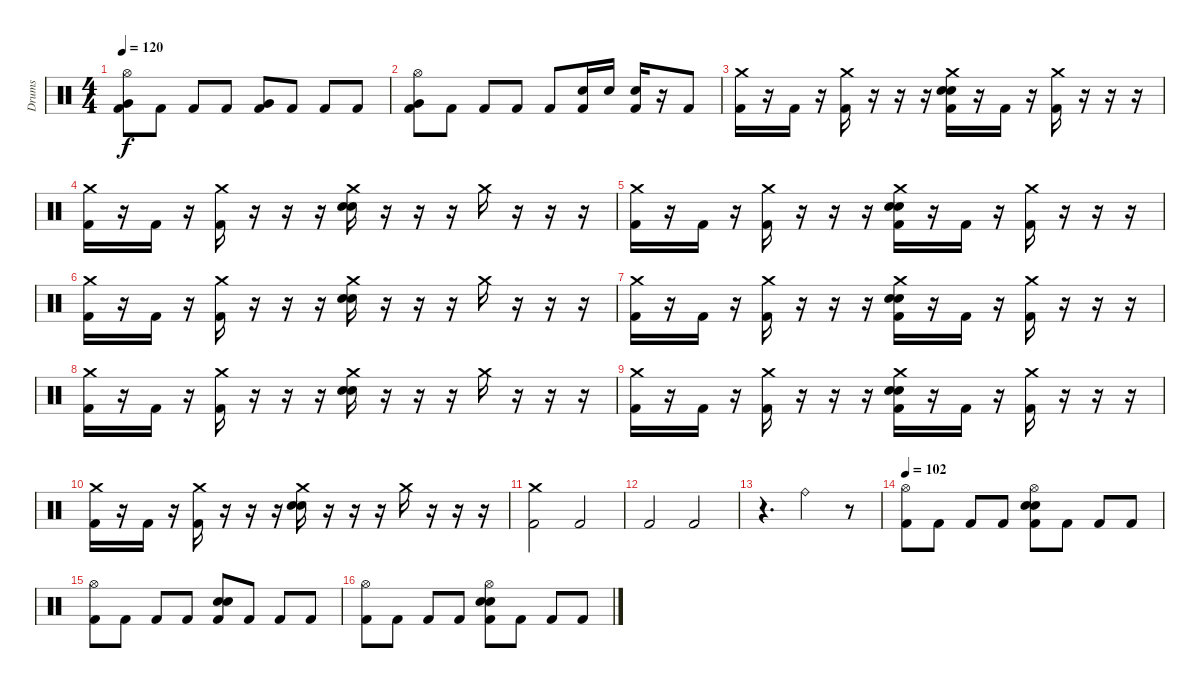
\track ("Drums" "Drums") {instrument percussion}
\staff {score}
\articulation defaults
\ts (4 4)
\tempo 120
\clef neutral
\ks c
("Hi-Hat (open)" "Very Low Tom (hit)" "Kick (hit) 2").8{dy f} "Kick (hit) 2".8 "Kick (hit) 2".8 "Kick (hit) 2".8 ("Very Low Tom (hit)" "Kick (hit) 2").8 "Kick (hit) 2".8 "Kick (hit) 2".8 "Kick (hit) 2".8 |
("Hi-Hat (open)" "Very Low Tom (hit)" "Kick (hit) 2").8 "Kick (hit) 2".8 "Kick (hit) 2".8 "Kick (hit) 2".8 "Kick (hit) 2".8 ("Electric Snare (hit)" "Kick (hit) 2").16 "Electric Snare (hit)".16 ("Electric Snare (hit)" "Kick (hit) 2").16 r.16 "Kick (hit) 2".8 |
("Crash medium (hit)" "Kick (hit) 2").16 r.16 "Kick (hit) 2".16 r.16 ("Crash medium (hit)" "Kick (hit) 2").16 r.16 r.16 r.16 ("Crash medium (hit)" "Electric Snare (hit)" "Electric Snare (hit)" "Kick (hit) 2").16 r.16 "Kick (hit) 2".16 r.16 ("Crash medium (hit)" "Kick (hit) 2").16 r.16 r.16 r.16 |
("Crash medium (hit)" "Kick (hit) 2").16 r.16 "Kick (hit) 2".16 r.16 ("Crash medium (hit)" "Kick (hit) 2").16 r.16 r.16 r.16 ("Crash medium (hit)" "Electric Snare (hit)" "Electric Snare (hit)").16 r.16 r.16 r.16 "Crash medium (hit)".16 r.16 r.16 r.16 |
("Crash medium (hit)" "Kick (hit) 2").16 r.16 "Kick (hit) 2".16 r.16 ("Crash medium (hit)" "Kick (hit) 2").16 r.16 r.16 r.16 ("Crash medium (hit)" "Electric Snare (hit)" "Electric Snare (hit)" "Kick (hit) 2").16 r.16 "Kick (hit) 2".16 r.16 ("Crash medium (hit)" "Kick (hit) 2").16 r.16 r.16 r.16 |
("Crash medium (hit)" "Kick (hit) 2").16 r.16 "Kick (hit) 2".16 r.16 ("Crash medium (hit)" "Kick (hit) 2").16 r.16 r.16 r.16 ("Crash medium (hit)" "Electric Snare (hit)" "Electric Snare (hit)").16 r.16 r.16 r.16 "Crash medium (hit)".16 r.16 r.16 r.16 |
("Crash medium (hit)" "Kick (hit) 2").16 r.16 "Kick (hit) 2".16 r.16 ("Crash medium (hit)" "Kick (hit) 2").16 r.16 r.16 r.16 ("Crash medium (hit)" "Electric Snare (hit)" "Electric Snare (hit)" "Kick (hit) 2").16 r.16 "Kick (hit) 2".16 r.16 ("Crash medium (hit)" "Kick (hit) 2").16 r.16 r.16 r.16 |
("Crash medium (hit)" "Kick (hit) 2").16 r.16 "Kick (hit) 2".16 r.16 ("Crash medium (hit)" "Kick (hit) 2").16 r.16 r.16 r.16 ("Crash medium (hit)" "Electric Snare (hit)" "Electric Snare (hit)").16 r.16 r.16 r.16 "Crash medium (hit)".16 r.16 r.16 r.16 |
("Crash medium (hit)" "Kick (hit) 2").16 r.16 "Kick (hit) 2".16 r.16 ("Crash medium (hit)" "Kick (hit) 2").16 r.16 r.16 r.16 ("Crash medium (hit)" "Electric Snare (hit)" "Electric Snare (hit)" "Kick (hit) 2").16 r.16 "Kick (hit) 2".16 r.16 ("Crash medium (hit)" "Kick (hit) 2").16 r.16 r.16 r.16 |
("Crash medium (hit)" "Kick (hit) 2").16 r.16 "Kick (hit) 2".16 r.16 ("Crash medium (hit)" "Kick (hit) 2").16 r.16 r.16 r.16 ("Crash medium (hit)" "Electric Snare (hit)" "Electric Snare (hit)").16 r.16 r.16 r.16 "Crash medium (hit)".16 r.16 r.16 r.16 |
("Crash medium (hit)" "Kick (hit) 2").2 "Kick (hit) 2".2 |
"Kick (hit) 2".2 "Kick (hit) 2".2 |
r.4{d} "Ride (bell)".2 r.8 |
\tempo 102
("Hi-Hat (open)" "Kick (hit) 2").8 "Kick (hit) 2".8 "Kick (hit) 2".8 "Kick (hit) 2".8 ("Hi-Hat (open)" "Electric Snare (hit)" "Electric Snare (hit)" "Kick (hit) 2").8 "Kick (hit) 2".8 "Kick (hit) 2".8 "Kick (hit) 2".8 |
("Hi-Hat (open)" "Kick (hit) 2").8 "Kick (hit) 2".8 "Kick (hit) 2".8 "Kick (hit) 2".8 ("Electric Snare (hit)" "Electric Snare (hit)" "Kick (hit) 2").8 "Kick (hit) 2".8 "Kick (hit) 2".8 "Kick (hit) 2".8 |
("Hi-Hat (open)" "Kick (hit) 2").8 "Kick (hit) 2".8 "Kick (hit) 2".8 "Kick (hit) 2".8 ("Hi-Hat (open)" "Electric Snare (hit)" "Electric Snare (hit)" "Kick (hit) 2").8 "Kick (hit) 2".8 "Kick (hit) 2".8 "Kick (hit) 2".8
